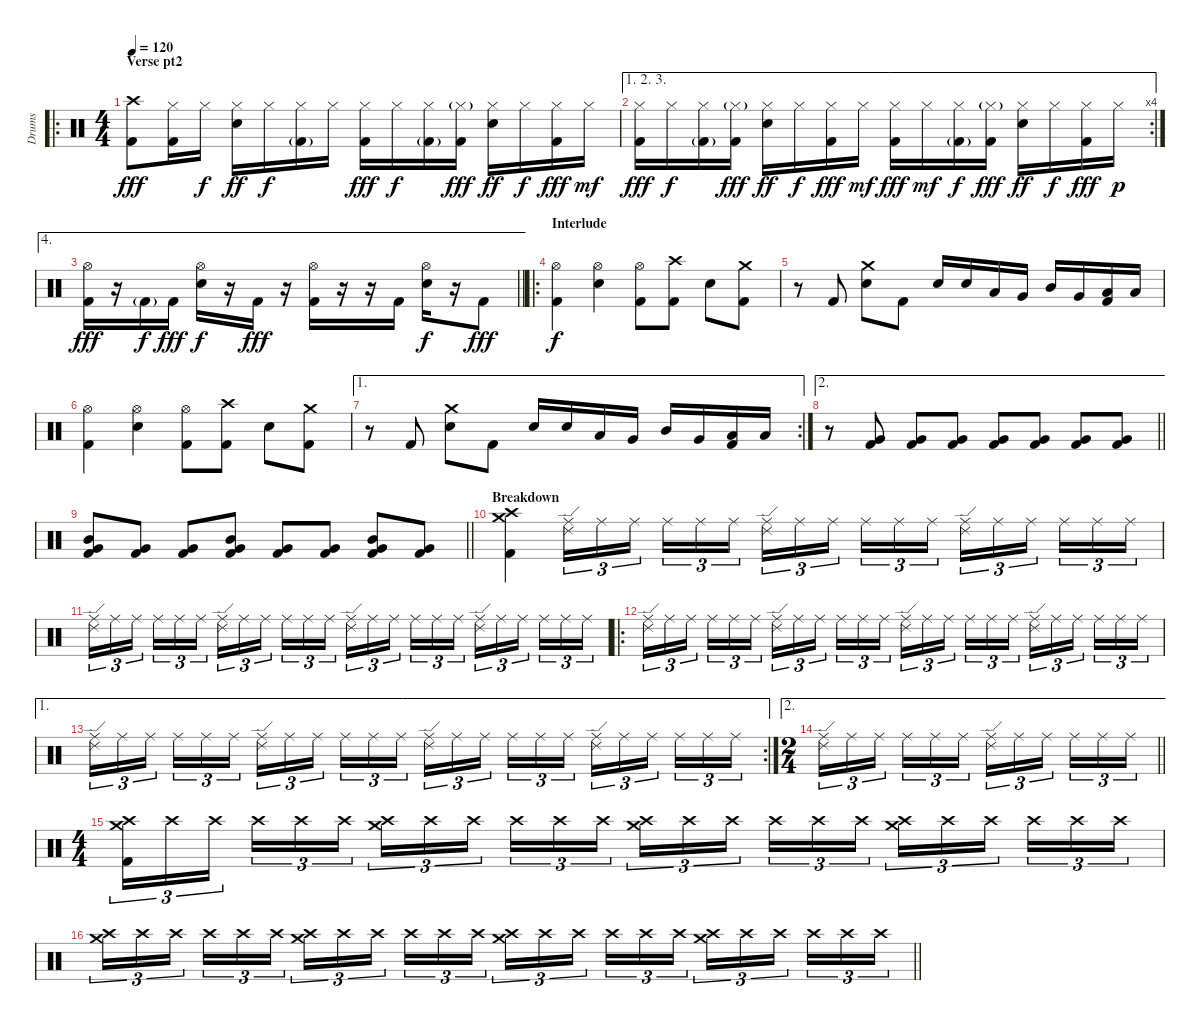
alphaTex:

\track ("Drums" "Drums") {instrument percussion}
\staff {score}
\articulation defaults
\ro
\ts (4 4)
\section ("" "Verse pt2")
\tempo 120
\clef neutral
\ks c
("Crash high (hit)" "Kick (hit) 2").8{dy fff} ("Hi-Hat (closed)" "Kick (hit) 2").16 "Hi-Hat (closed)".16{dy f} ("Hi-Hat (closed)" "Electric Snare (hit)").16{dy ff} "Hi-Hat (closed)".16{dy f} ("Hi-Hat (closed)" "Kick (hit) 2"{g}).16 "Hi-Hat (closed)".16 ("Hi-Hat (closed)" "Kick (hit) 2").16{dy fff} "Hi-Hat (closed)".16{dy f} ("Hi-Hat (closed)" "Kick (hit) 2"{g}).16 ("Hi-Hat (closed)"{g} "Kick (hit) 2").16{dy fff} ("Hi-Hat (closed)" "Electric Snare (hit)").16{dy ff} "Hi-Hat (closed)".16{dy f} ("Hi-Hat (closed)" "Kick (hit) 2").16{dy fff} "Hi-Hat (closed)".16{dy mf} |
\ae (1 2 3)
\rc 4
("Hi-Hat (closed)" "Kick (hit) 2").16{dy fff} "Hi-Hat (closed)".16{dy f} ("Hi-Hat (closed)" "Kick (hit) 2"{g}).16 ("Hi-Hat (closed)"{g} "Kick (hit) 2").16{dy fff} ("Hi-Hat (closed)" "Electric Snare (hit)").16{dy ff} "Hi-Hat (closed)".16{dy f} ("Hi-Hat (closed)" "Kick (hit) 2").16{dy fff} "Hi-Hat (closed)".16{dy mf} ("Hi-Hat (closed)" "Kick (hit) 2").16{dy fff} "Hi-Hat (closed)".16{dy mf} ("Hi-Hat (closed)" "Kick (hit) 2"{g}).16{dy f} ("Hi-Hat (closed)"{g} "Kick (hit) 2").16{dy fff} ("Hi-Hat (closed)" "Electric Snare (hit)").16{dy ff} "Hi-Hat (closed)".16{dy f} ("Hi-Hat (closed)" "Kick (hit) 2").16{dy fff} "Hi-Hat (closed)".16{dy p} |
\ae 4
\barLineRight lightlight
("Hi-Hat (open)" "Kick (hit) 2").16{dy fff} r.16 "Kick (hit) 2"{g}.16{dy f} "Kick (hit) 2".16{dy fff} ("Hi-Hat (open)" "Electric Snare (hit)").16{dy f} r.16 "Kick (hit) 2".16{dy fff} r.16 ("Hi-Hat (open)" "Kick (hit) 2").16 r.16 r.16 "Kick (hit) 2".16 ("Hi-Hat (open)" "Electric Snare (hit)").16{dy f} r.16 "Kick (hit) 2".8{dy fff} |
\ro
\section ("" "Interlude")
("Hi-Hat (open)" "Kick (hit) 2").4{dy f} ("Hi-Hat (open)" "Electric Snare (hit)").4 ("Hi-Hat (open)" "Kick (hit) 2").8 ("Crash high (hit)" "Kick (hit) 2").8 "Electric Snare (hit)".8 ("Crash medium (hit)" "Kick (hit) 2").8 |
r.8 "Kick (hit) 2".8 ("Crash medium (hit)" "Electric Snare (hit)").8 "Kick (hit) 2".8 "Electric Snare (hit)".16 "Electric Snare (hit)".16 "Low Tom (hit)".16 "Very Low Tom (hit)".16 "Mid Tom (hit)".16 "Very Low Tom (hit)".16 ("Low Tom (hit)" "Kick (hit) 2").16 "Low Floor Tom (hit)".16 |
("Hi-Hat (open)" "Kick (hit) 2").4 ("Hi-Hat (open)" "Electric Snare (hit)").4 ("Hi-Hat (open)" "Kick (hit) 2").8 ("Crash high (hit)" "Kick (hit) 2").8 "Electric Snare (hit)".8 ("Crash medium (hit)" "Kick (hit) 2").8 |
\ae 1
\rc 2
r.8 "Kick (hit) 2".8 ("Crash medium (hit)" "Electric Snare (hit)").8 "Kick (hit) 2".8 "Electric Snare (hit)".16 "Electric Snare (hit)".16 "Low Tom (hit)".16 "Very Low Tom (hit)".16 "Mid Tom (hit)".16 "Very Low Tom (hit)".16 ("Low Tom (hit)" "Kick (hit) 2").16 "Low Floor Tom (hit)".16 |
\ae 2
\barLineRight lightlight
r.8 ("Very Low Tom (hit)" "Kick (hit) 2").8 ("Very Low Tom (hit)" "Kick (hit) 2").8 ("Very Low Tom (hit)" "Kick (hit) 2").8 ("Very Low Tom (hit)" "Kick (hit) 2").8 ("Very Low Tom (hit)" "Kick (hit) 2").8 ("Very Low Tom (hit)" "Kick (hit) 2").8 ("Very Low Tom (hit)" "Kick (hit) 2").8 |
\barLineRight lightlight
("Mid Tom (hit)" "Very Low Tom (hit)" "Kick (hit) 2").8 ("Very Low Tom (hit)" "Kick (hit) 2").8 ("Very Low Tom (hit)" "Kick (hit) 2").8 ("Mid Tom (hit)" "Very Low Tom (hit)" "Kick (hit) 2").8 ("Very Low Tom (hit)" "Kick (hit) 2").8 ("Very Low Tom (hit)" "Kick (hit) 2").8 ("Mid Tom (hit)" "Very Low Tom (hit)" "Kick (hit) 2").8 ("Very Low Tom (hit)" "Kick (hit) 2").8 |
\section ("" "Breakdown")
("Crash medium (hit)" "Crash high (hit)" "Kick (hit) 2").4 ("Ride (edge) 2" "Ride (middle)").16{tu (3 2)} "Ride (middle)".16{tu (3 2)} "Ride (middle)".16{tu (3 2) beam splitsecondary} "Ride (middle)".16{tu (3 2)} "Ride (middle)".16{tu (3 2)} "Ride (middle)".16{tu (3 2)} ("Ride (edge) 2" "Ride (middle)").16{tu (3 2)} "Ride (middle)".16{tu (3 2)} "Ride (middle)".16{tu (3 2) beam splitsecondary} "Ride (middle)".16{tu (3 2)} "Ride (middle)".16{tu (3 2)} "Ride (middle)".16{tu (3 2)} ("Ride (edge) 2" "Ride (middle)").16{tu (3 2)} "Ride (middle)".16{tu (3 2)} "Ride (middle)".16{tu (3 2) beam splitsecondary} "Ride (middle)".16{tu (3 2)} "Ride (middle)".16{tu (3 2)} "Ride (middle)".16{tu (3 2)} |
("Ride (edge) 2" "Ride (middle)").16{tu (3 2)} "Ride (middle)".16{tu (3 2)} "Ride (middle)".16{tu (3 2) beam splitsecondary} "Ride (middle)".16{tu (3 2)} "Ride (middle)".16{tu (3 2)} "Ride (middle)".16{tu (3 2)} ("Ride (edge) 2" "Ride (middle)").16{tu (3 2)} "Ride (middle)".16{tu (3 2)} "Ride (middle)".16{tu (3 2) beam splitsecondary} "Ride (middle)".16{tu (3 2)} "Ride (middle)".16{tu (3 2)} "Ride (middle)".16{tu (3 2)} ("Ride (edge) 2" "Ride (middle)").16{tu (3 2)} "Ride (middle)".16{tu (3 2)} "Ride (middle)".16{tu (3 2) beam splitsecondary} "Ride (middle)".16{tu (3 2)} "Ride (middle)".16{tu (3 2)} "Ride (middle)".16{tu (3 2)} ("Ride (edge) 2" "Ride (middle)").16{tu (3 2)} "Ride (middle)".16{tu (3 2)} "Ride (middle)".16{tu (3 2) beam splitsecondary} "Ride (middle)".16{tu (3 2)} "Ride (middle)".16{tu (3 2)} "Ride (middle)".16{tu (3 2)} |
\ro
("Ride (edge) 2" "Ride (middle)").16{tu (3 2)} "Ride (middle)".16{tu (3 2)} "Ride (middle)".16{tu (3 2) beam splitsecondary} "Ride (middle)".16{tu (3 2)} "Ride (middle)".16{tu (3 2)} "Ride (middle)".16{tu (3 2)} ("Ride (edge) 2" "Ride (middle)").16{tu (3 2)} "Ride (middle)".16{tu (3 2)} "Ride (middle)".16{tu (3 2) beam splitsecondary} "Ride (middle)".16{tu (3 2)} "Ride (middle)".16{tu (3 2)} "Ride (middle)".16{tu (3 2)} ("Ride (edge) 2" "Ride (middle)").16{tu (3 2)} "Ride (middle)".16{tu (3 2)} "Ride (middle)".16{tu (3 2) beam splitsecondary} "Ride (middle)".16{tu (3 2)} "Ride (middle)".16{tu (3 2)} "Ride (middle)".16{tu (3 2)} ("Ride (edge) 2" "Ride (middle)").16{tu (3 2)} "Ride (middle)".16{tu (3 2)} "Ride (middle)".16{tu (3 2) beam splitsecondary} "Ride (middle)".16{tu (3 2)} "Ride (middle)".16{tu (3 2)} "Ride (middle)".16{tu (3 2)} |
\ae 1
\rc 2
("Ride (edge) 2" "Ride (middle)").16{tu (3 2)} "Ride (middle)".16{tu (3 2)} "Ride (middle)".16{tu (3 2) beam splitsecondary} "Ride (middle)".16{tu (3 2)} "Ride (middle)".16{tu (3 2)} "Ride (middle)".16{tu (3 2)} ("Ride (edge) 2" "Ride (middle)").16{tu (3 2)} "Ride (middle)".16{tu (3 2)} "Ride (middle)".16{tu (3 2) beam splitsecondary} "Ride (middle)".16{tu (3 2)} "Ride (middle)".16{tu (3 2)} "Ride (middle)".16{tu (3 2)} ("Ride (edge) 2" "Ride (middle)").16{tu (3 2)} "Ride (middle)".16{tu (3 2)} "Ride (middle)".16{tu (3 2) beam splitsecondary} "Ride (middle)".16{tu (3 2)} "Ride (middle)".16{tu (3 2)} "Ride (middle)".16{tu (3 2)} ("Ride (edge) 2" "Ride (middle)").16{tu (3 2)} "Ride (middle)".16{tu (3 2)} "Ride (middle)".16{tu (3 2) beam splitsecondary} "Ride (middle)".16{tu (3 2)} "Ride (middle)".16{tu (3 2)} "Ride (middle)".16{tu (3 2)} |
\ae 2
\ts (2 4)
\barLineRight lightlight
("Ride (edge) 2" "Ride (middle)").16{tu (3 2)} "Ride (middle)".16{tu (3 2)} "Ride (middle)".16{tu (3 2) beam splitsecondary} "Ride (middle)".16{tu (3 2)} "Ride (middle)".16{tu (3 2)} "Ride (middle)".16{tu (3 2)} ("Ride (edge) 2" "Ride (middle)").16{tu (3 2)} "Ride (middle)".16{tu (3 2)} "Ride (middle)".16{tu (3 2) beam splitsecondary} "Ride (middle)".16{tu (3 2)} "Ride (middle)".16{tu (3 2)} "Ride (middle)".16{tu (3 2)} |
\ts (4 4)
("Crash high (hit)" "Crash medium (hit)" "Kick (hit) 2").16{tu (3 2)} "Crash high (hit)".16{tu (3 2)} "Crash high (hit)".16{tu (3 2) beam splitsecondary} "Crash high (hit)".16{tu (3 2)} "Crash high (hit)".16{tu (3 2)} "Crash high (hit)".16{tu (3 2)} ("Crash high (hit)" "Crash medium (hit)").16{tu (3 2)} "Crash high (hit)".16{tu (3 2)} "Crash high (hit)".16{tu (3 2) beam splitsecondary} "Crash high (hit)".16{tu (3 2)} "Crash high (hit)".16{tu (3 2)} "Crash high (hit)".16{tu (3 2)} ("Crash high (hit)" "Crash medium (hit)").16{tu (3 2)} "Crash high (hit)".16{tu (3 2)} "Crash high (hit)".16{tu (3 2) beam splitsecondary} "Crash high (hit)".16{tu (3 2)} "Crash high (hit)".16{tu (3 2)} "Crash high (hit)".16{tu (3 2)} ("Crash high (hit)" "Crash medium (hit)").16{tu (3 2)} "Crash high (hit)".16{tu (3 2)} "Crash high (hit)".16{tu (3 2) beam splitsecondary} "Crash high (hit)".16{tu (3 2)} "Crash high (hit)".16{tu (3 2)} "Crash high (hit)".16{tu (3 2)} |
\barLineRight lightlight
("Crash high (hit)" "Crash medium (hit)").16{tu (3 2)} "Crash high (hit)".16{tu (3 2)} "Crash high (hit)".16{tu (3 2) beam splitsecondary} "Crash high (hit)".16{tu (3 2)} "Crash high (hit)".16{tu (3 2)} "Crash high (hit)".16{tu (3 2)} ("Crash high (hit)" "Crash medium (hit)").16{tu (3 2)} "Crash high (hit)".16{tu (3 2)} "Crash high (hit)".16{tu (3 2) beam splitsecondary} "Crash high (hit)".16{tu (3 2)} "Crash high (hit)".16{tu (3 2)} "Crash high (hit)".16{tu (3 2)} ("Crash high (hit)" "Crash medium (hit)").16{tu (3 2)} "Crash high (hit)".16{tu (3 2)} "Crash high (hit)".16{tu (3 2) beam splitsecondary} "Crash high (hit)".16{tu (3 2)} "Crash high (hit)".16{tu (3 2)} "Crash high (hit)".16{tu (3 2)} ("Crash high (hit)" "Crash medium (hit)").16{tu (3 2)} "Crash high (hit)".16{tu (3 2)} "Crash high (hit)".16{tu (3 2) beam splitsecondary} "Crash high (hit)".16{tu (3 2)} "Crash high (hit)".16{tu (3 2)} "Crash high (hit)".16{tu (3 2)}
